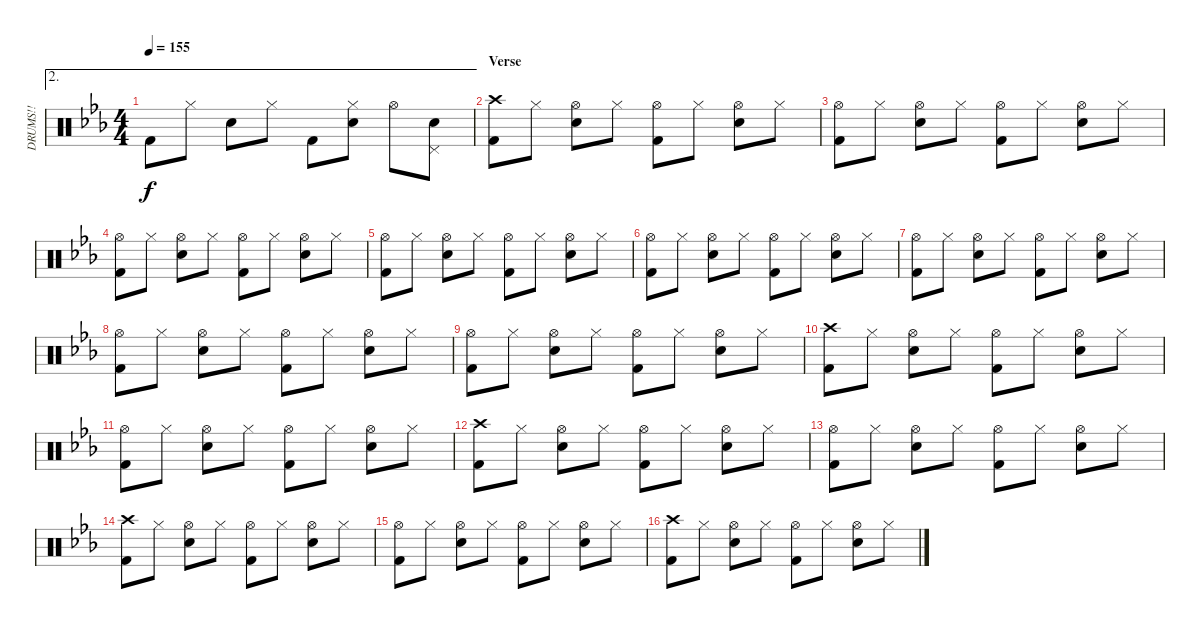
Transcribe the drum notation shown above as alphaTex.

\track ("DRUMS!!" "DRUMS!!") {instrument percussion}
\staff {score}
\articulation defaults
\ae 2
\ts (4 4)
\tempo 155
\clef neutral
\ks eb "Kick (hit) 2".8{dy f} "Hi-Hat (closed)".8 "Snare (hit) 2".8 "Hi-Hat (closed)".8 "Kick (hit) 2".8
("Hi-Hat (closed)" "Snare (hit) 2").8 "Hi-Hat (open)".8 ("Pedal Hi-Hat (hit)" "Snare (hit) 2").8 |
\section ("" "Verse")
("Crash high (hit)" "Kick (hit) 2").8 "Hi-Hat (closed)".8 ("Hi-Hat (open)" "Snare (hit) 2").8 "Hi-Hat (closed)".8 ("Hi-Hat (open)" "Kick (hit) 2").8 "Hi-Hat (closed)".8 ("Hi-Hat (open)" "Snare (hit) 2").8 "Hi-Hat (closed)".8 |
("Hi-Hat (open)" "Kick (hit) 2").8 "Hi-Hat (closed)".8 ("Hi-Hat (open)" "Snare (hit) 2").8 "Hi-Hat (closed)".8 ("Hi-Hat (open)" "Kick (hit) 2").8 "Hi-Hat (closed)".8 ("Hi-Hat (open)" "Snare (hit) 2").8 "Hi-Hat (closed)".8 |
("Hi-Hat (open)" "Kick (hit) 2").8 "Hi-Hat (closed)".8 ("Hi-Hat (open)" "Snare (hit) 2").8 "Hi-Hat (closed)".8 ("Hi-Hat (open)" "Kick (hit) 2").8 "Hi-Hat (closed)".8 ("Hi-Hat (open)" "Snare (hit) 2").8 "Hi-Hat (closed)".8 |
("Hi-Hat (open)" "Kick (hit) 2").8 "Hi-Hat (closed)".8 ("Hi-Hat (open)" "Snare (hit) 2").8 "Hi-Hat (closed)".8 ("Hi-Hat (open)" "Kick (hit) 2").8 "Hi-Hat (closed)".8 ("Hi-Hat (open)" "Snare (hit) 2").8 "Hi-Hat (closed)".8 |
("Hi-Hat (open)" "Kick (hit) 2").8 "Hi-Hat (closed)".8 ("Hi-Hat (open)" "Snare (hit) 2").8 "Hi-Hat (closed)".8 ("Hi-Hat (open)" "Kick (hit) 2").8 "Hi-Hat (closed)".8 ("Hi-Hat (open)" "Snare (hit) 2").8 "Hi-Hat (closed)".8 |
("Hi-Hat (open)" "Kick (hit) 2").8 "Hi-Hat (closed)".8 ("Hi-Hat (open)" "Snare (hit) 2").8 "Hi-Hat (closed)".8 ("Hi-Hat (open)" "Kick (hit) 2").8 "Hi-Hat (closed)".8 ("Hi-Hat (open)" "Snare (hit) 2").8 "Hi-Hat (closed)".8 |
("Hi-Hat (open)" "Kick (hit) 2").8 "Hi-Hat (closed)".8 ("Hi-Hat (open)" "Snare (hit) 2").8 "Hi-Hat (closed)".8 ("Hi-Hat (open)" "Kick (hit) 2").8 "Hi-Hat (closed)".8 ("Hi-Hat (open)" "Snare (hit) 2").8 "Hi-Hat (closed)".8 |
("Hi-Hat (open)" "Kick (hit) 2").8 "Hi-Hat (closed)".8 ("Hi-Hat (open)" "Snare (hit) 2").8 "Hi-Hat (closed)".8 ("Hi-Hat (open)" "Kick (hit) 2").8 "Hi-Hat (closed)".8 ("Hi-Hat (open)" "Snare (hit) 2").8 "Hi-Hat (closed)".8 |
("Crash high (hit)" "Kick (hit) 2").8 "Hi-Hat (closed)".8 ("Hi-Hat (open)" "Snare (hit) 2").8 "Hi-Hat (closed)".8 ("Hi-Hat (open)" "Kick (hit) 2").8 "Hi-Hat (closed)".8 ("Hi-Hat (open)" "Snare (hit) 2").8 "Hi-Hat (closed)".8 |
("Hi-Hat (open)" "Kick (hit) 2").8 "Hi-Hat (closed)".8 ("Hi-Hat (open)" "Snare (hit) 2").8 "Hi-Hat (closed)".8 ("Hi-Hat (open)" "Kick (hit) 2").8 "Hi-Hat (closed)".8 ("Hi-Hat (open)" "Snare (hit) 2").8 "Hi-Hat (closed)".8 |
("Crash high (hit)" "Kick (hit) 2").8 "Hi-Hat (closed)".8 ("Hi-Hat (open)" "Snare (hit) 2").8 "Hi-Hat (closed)".8 ("Hi-Hat (open)" "Kick (hit) 2").8 "Hi-Hat (closed)".8 ("Hi-Hat (open)" "Snare (hit) 2").8 "Hi-Hat (closed)".8 |
("Hi-Hat (open)" "Kick (hit) 2").8 "Hi-Hat (closed)".8 ("Hi-Hat (open)" "Snare (hit) 2").8 "Hi-Hat (closed)".8 ("Hi-Hat (open)" "Kick (hit) 2").8 "Hi-Hat (closed)".8 ("Hi-Hat (open)" "Snare (hit) 2").8 "Hi-Hat (closed)".8 |
("Crash high (hit)" "Kick (hit) 2").8 "Hi-Hat (closed)".8 ("Hi-Hat (open)" "Snare (hit) 2").8 "Hi-Hat (closed)".8 ("Hi-Hat (open)" "Kick (hit) 2").8 "Hi-Hat (closed)".8 ("Hi-Hat (open)" "Snare (hit) 2").8 "Hi-Hat (closed)".8 |
("Hi-Hat (open)" "Kick (hit) 2").8 "Hi-Hat (closed)".8 ("Hi-Hat (open)" "Snare (hit) 2").8 "Hi-Hat (closed)".8 ("Hi-Hat (open)" "Kick (hit) 2").8 "Hi-Hat (closed)".8 ("Hi-Hat (open)" "Snare (hit) 2").8 "Hi-Hat (closed)".8 |
("Crash high (hit)" "Kick (hit) 2").8 "Hi-Hat (closed)".8 ("Hi-Hat (open)" "Snare (hit) 2").8 "Hi-Hat (closed)".8 ("Hi-Hat (open)" "Kick (hit) 2").8 "Hi-Hat (closed)".8 ("Hi-Hat (open)" "Snare (hit) 2").8 "Hi-Hat (closed)".8
